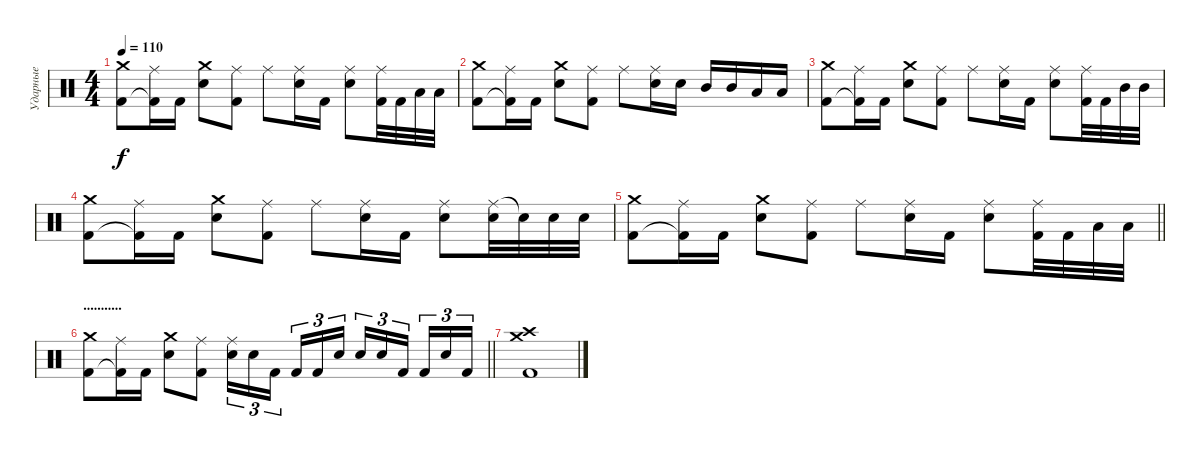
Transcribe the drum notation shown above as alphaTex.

\track ("Ударные" "Ударные") {instrument percussion}
\staff {score}
\articulation defaults
\ts (4 4)
\tempo 110
\clef neutral
\ks c
("Crash medium (hit)" "Kick (hit) 2").8{dy f} ("Ride (middle)" "Kick (hit) 2"{t}).16 "Kick (hit) 2".16 ("Crash medium (hit)" "Snare (hit) 2").8 ("Ride (middle)" "Kick (hit) 2").8 "Ride (middle)".8 ("Ride (middle)" "Snare (hit) 2").16 "Kick (hit) 2".16 ("Ride (middle)" "Snare (hit) 2").8 ("Ride (middle)" "Kick (hit) 2").32 "Kick (hit) 2".32 "Low Tom (hit)".32 "Low Tom (hit)".32 |
("Crash medium (hit)" "Kick (hit) 2").8 ("Ride (middle)" "Kick (hit) 2"{t}).16 "Kick (hit) 2".16 ("Crash medium (hit)" "Snare (hit) 2").8 ("Ride (middle)" "Kick (hit) 2").8 "Ride (middle)".8 ("Ride (middle)" "Snare (hit) 2").16 "Snare (hit) 2".16 "Mid Tom (hit)".16 "Mid Tom (hit)".16 "Low Tom (hit)".16 "Low Tom (hit)".16 |
("Crash medium (hit)" "Kick (hit) 2").8 ("Ride (middle)" "Kick (hit) 2"{t}).16 "Kick (hit) 2".16 ("Crash medium (hit)" "Snare (hit) 2").8 ("Ride (middle)" "Kick (hit) 2").8 "Ride (middle)".8 ("Ride (middle)" "Snare (hit) 2").16 "Kick (hit) 2".16 ("Ride (middle)" "Snare (hit) 2").8 ("Ride (middle)" "Kick (hit) 2").32 "Kick (hit) 2".32 "Mid Tom (hit)".32 "Mid Tom (hit)".32 |
("Crash medium (hit)" "Kick (hit) 2").8 ("Ride (middle)" "Kick (hit) 2"{t}).16 "Kick (hit) 2".16 ("Crash medium (hit)" "Snare (hit) 2").8 ("Ride (middle)" "Kick (hit) 2").8 "Ride (middle)".8 ("Ride (middle)" "Snare (hit) 2").16 "Kick (hit) 2".16 ("Ride (middle)" "Snare (hit) 2").8 ("Ride (middle)" "Snare (hit) 2").32 "Snare (hit) 2"{t}.32 "Snare (hit) 2".32 "Snare (hit) 2".32 |
\barLineRight lightlight
("Crash medium (hit)" "Kick (hit) 2").8 ("Ride (middle)" "Kick (hit) 2"{t}).16 "Kick (hit) 2".16 ("Crash medium (hit)" "Snare (hit) 2").8 ("Ride (middle)" "Kick (hit) 2").8 "Ride (middle)".8 ("Ride (middle)" "Snare (hit) 2").16 "Kick (hit) 2".16 ("Ride (middle)" "Snare (hit) 2").8 ("Ride (middle)" "Kick (hit) 2").32 "Kick (hit) 2".32 "Low Tom (hit)".32 "Low Tom (hit)".32 |
\section ("" "...........")
\barLineRight lightlight
("Crash medium (hit)" "Kick (hit) 2").8 ("Ride (middle)" "Kick (hit) 2"{t}).16 "Kick (hit) 2".16 ("Crash medium (hit)" "Snare (hit) 2").8 ("Ride (middle)" "Kick (hit) 2").8 ("Ride (middle)" "Snare (hit) 2").16{tu (3 2)} "Snare (hit) 2".16{tu (3 2)} "Kick (hit) 2".16{tu (3 2) beam splitsecondary} "Kick (hit) 2".16{tu (3 2)} "Kick (hit) 2".16{tu (3 2)} "Snare (hit) 2".16{tu (3 2)} "Snare (hit) 2".16{tu (3 2)} "Snare (hit) 2".16{tu (3 2)} "Kick (hit) 2".16{tu (3 2) beam splitsecondary} "Kick (hit) 2".16{tu (3 2)} "Snare (hit) 2".16{tu (3 2)} "Kick (hit) 2".16{tu (3 2)} |
("Crash high (hit)" "Crash medium (hit)" "Kick (hit) 2").1
